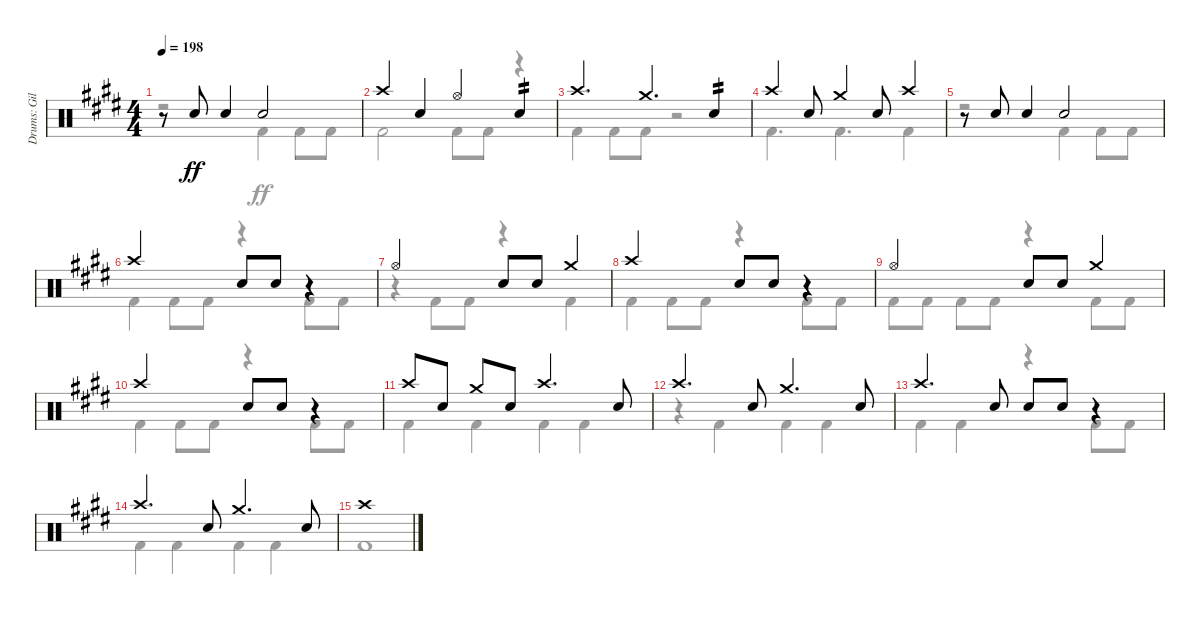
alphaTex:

\track ("Drums: Gil" "Drums: Gil") {instrument percussion}
\staff {score}
\articulation defaults
\voice
\ts (4 4)
\tempo 198
\clef neutral
\ks e
r.8{dy ff} "Snare (hit) 2".8 "Snare (hit) 2".4 "Snare (hit) 2".2 |
"Crash high (hit)".4 "Snare (hit) 2".4{beam merge} "Hi-Hat (open)".4 "Electric Snare (hit)".4{tp 2} |
"Crash high (hit)".4{d} "Crash medium (hit)".4{d} "Snare (hit) 2".4{tp 2} |
"Crash high (hit)".4 "Snare (hit) 2".8 "Crash medium (hit)".4 "Snare (hit) 2".8 "Crash high (hit)".4 |
r.8 "Snare (hit) 2".8 "Snare (hit) 2".4 "Snare (hit) 2".2 |
"Crash high (hit)".2 "Snare (hit) 2".8 "Snare (hit) 2".8 r.4 |
"Hi-Hat (open)".2 "Snare (hit) 2".8 "Snare (hit) 2".8 "Crash medium (hit)".4 |
"Crash high (hit)".2 "Snare (hit) 2".8 "Snare (hit) 2".8 r.4 |
"Hi-Hat (open)".2 "Snare (hit) 2".8 "Snare (hit) 2".8 "Crash medium (hit)".4 |
"Crash high (hit)".2 "Snare (hit) 2".8 "Snare (hit) 2".8 r.4 |
"Crash high (hit)".8 "Snare (hit) 2".8 "Crash medium (hit)".8 "Snare (hit) 2".8 "Crash high (hit)".4{d} "Snare (hit) 2".8 |
"Crash high (hit)".4{d} "Snare (hit) 2".8 "Crash medium (hit)".4{d} "Snare (hit) 2".8 |
"Crash high (hit)".4{d} "Snare (hit) 2".8 "Snare (hit) 2".8 "Snare (hit) 2".8 r.4 |
"Crash high (hit)".4{d} "Snare (hit) 2".8 "Crash medium (hit)".4{d} "Snare (hit) 2".8 |
"Crash high (hit)".1
\voice
\clef neutral
\ottava regular
\simile none
\ks e
r.2{dy ff} "Kick (hit) 2".4 "Kick (hit) 2".8 "Kick (hit) 2".8 |
"Kick (hit) 2".2 "Kick (hit) 2".8 "Kick (hit) 2".8 r.4 |
"Kick (hit) 2".4 "Kick (hit) 2".8 "Kick (hit) 2".8 r.2 |
"Kick (hit) 2".4{d} "Kick (hit) 2".4{d} "Kick (hit) 2".4 |
r.2 "Kick (hit) 2".4 "Kick (hit) 2".8 "Kick (hit) 2".8 |
"Kick (hit) 2".4 "Kick (hit) 2".8 "Kick (hit) 2".8 r.4 "Kick (hit) 2".8 "Kick (hit) 2".8 |
r.4 "Kick (hit) 2".8 "Kick (hit) 2".8 r.4 "Kick (hit) 2".4 |
"Kick (hit) 2".4 "Kick (hit) 2".8 "Kick (hit) 2".8 r.4 "Kick (hit) 2".8 "Kick (hit) 2".8 |
"Kick (hit) 2".8 "Kick (hit) 2".8 "Kick (hit) 2".8 "Kick (hit) 2".8 r.4 "Kick (hit) 2".8 "Kick (hit) 2".8 |
"Kick (hit) 2".4 "Kick (hit) 2".8 "Kick (hit) 2".8 r.4 "Kick (hit) 2".8 "Kick (hit) 2".8 |
"Kick (hit) 2".4 "Kick (hit) 2".4{beam merge} "Kick (hit) 2".4 "Kick (hit) 2".4 |
r.4 "Kick (hit) 2".4{beam merge} "Kick (hit) 2".4 "Kick (hit) 2".4 |
"Kick (hit) 2".4{beam merge} "Kick (hit) 2".4 r.4 "Kick (hit) 2".8 "Kick (hit) 2".8 |
"Kick (hit) 2".4 "Kick (hit) 2".4{beam merge} "Kick (hit) 2".4 "Kick (hit) 2".4 |
"Kick (hit) 2".1
